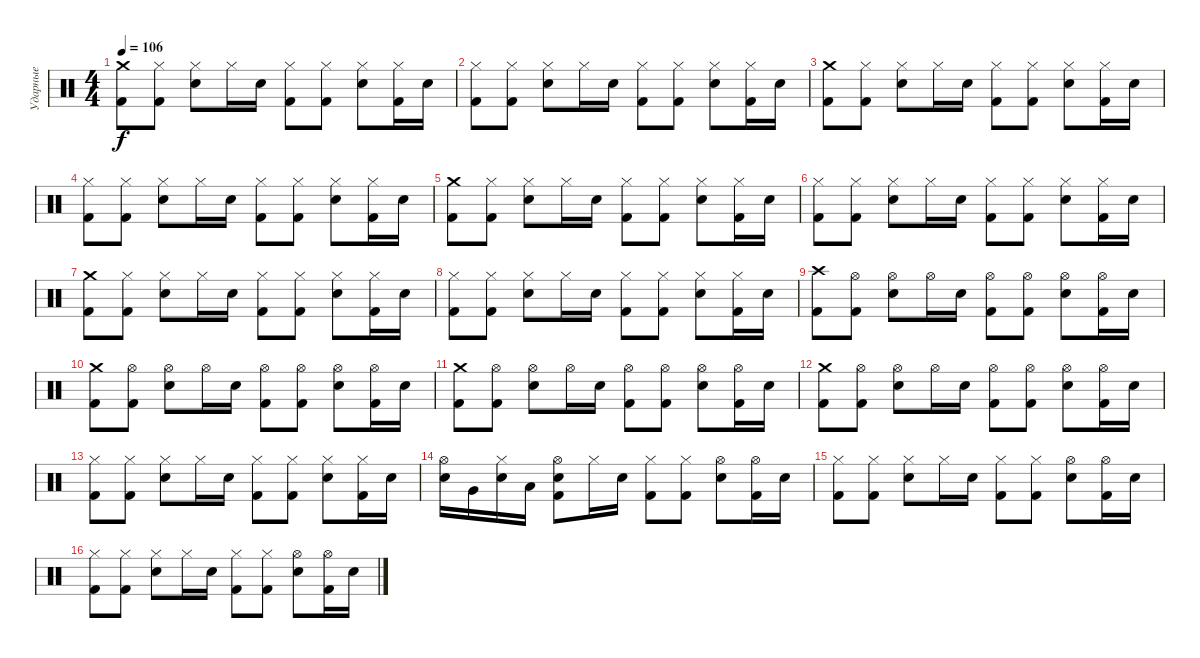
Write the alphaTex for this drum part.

\track ("Ударные" "Ударные") {instrument percussion}
\staff {score}
\articulation defaults
\ts (4 4)
\tempo 106
\clef neutral
\ks c
("Crash medium (hit)" "Kick (hit) 2").8{dy f} ("Hi-Hat (closed)" "Kick (hit) 2").8 ("Hi-Hat (closed)" "Electric Snare (hit)").8 "Hi-Hat (closed)".16 "Electric Snare (hit)".16 ("Hi-Hat (closed)" "Kick (hit) 2").8 ("Hi-Hat (closed)" "Kick (hit) 2").8 ("Hi-Hat (closed)" "Electric Snare (hit)").8 ("Hi-Hat (closed)" "Kick (hit) 2").16 "Electric Snare (hit)".16 |
("Hi-Hat (closed)" "Kick (hit) 2").8 ("Hi-Hat (closed)" "Kick (hit) 2").8 ("Hi-Hat (closed)" "Electric Snare (hit)").8 "Hi-Hat (closed)".16 "Electric Snare (hit)".16 ("Hi-Hat (closed)" "Kick (hit) 2").8 ("Hi-Hat (closed)" "Kick (hit) 2").8 ("Hi-Hat (closed)" "Electric Snare (hit)").8 ("Hi-Hat (closed)" "Kick (hit) 2").16 "Electric Snare (hit)".16 |
("Crash medium (hit)" "Kick (hit) 2").8 ("Hi-Hat (closed)" "Kick (hit) 2").8 ("Hi-Hat (closed)" "Electric Snare (hit)").8 "Hi-Hat (closed)".16 "Electric Snare (hit)".16 ("Hi-Hat (closed)" "Kick (hit) 2").8 ("Hi-Hat (closed)" "Kick (hit) 2").8 ("Hi-Hat (closed)" "Electric Snare (hit)").8 ("Hi-Hat (closed)" "Kick (hit) 2").16 "Electric Snare (hit)".16 |
("Hi-Hat (closed)" "Kick (hit) 2").8 ("Hi-Hat (closed)" "Kick (hit) 2").8 ("Hi-Hat (closed)" "Electric Snare (hit)").8 "Hi-Hat (closed)".16 "Electric Snare (hit)".16 ("Hi-Hat (closed)" "Kick (hit) 2").8 ("Hi-Hat (closed)" "Kick (hit) 2").8 ("Hi-Hat (closed)" "Electric Snare (hit)").8 ("Hi-Hat (closed)" "Kick (hit) 2").16 "Electric Snare (hit)".16 |
("Crash medium (hit)" "Kick (hit) 2").8 ("Hi-Hat (closed)" "Kick (hit) 2").8 ("Hi-Hat (closed)" "Electric Snare (hit)").8 "Hi-Hat (closed)".16 "Electric Snare (hit)".16 ("Hi-Hat (closed)" "Kick (hit) 2").8 ("Hi-Hat (closed)" "Kick (hit) 2").8 ("Hi-Hat (closed)" "Electric Snare (hit)").8 ("Hi-Hat (closed)" "Kick (hit) 2").16 "Electric Snare (hit)".16 |
("Hi-Hat (closed)" "Kick (hit) 2").8 ("Hi-Hat (closed)" "Kick (hit) 2").8 ("Hi-Hat (closed)" "Electric Snare (hit)").8 "Hi-Hat (closed)".16 "Electric Snare (hit)".16 ("Hi-Hat (closed)" "Kick (hit) 2").8 ("Hi-Hat (closed)" "Kick (hit) 2").8 ("Hi-Hat (closed)" "Electric Snare (hit)").8 ("Hi-Hat (closed)" "Kick (hit) 2").16 "Electric Snare (hit)".16 |
("Crash medium (hit)" "Kick (hit) 2").8 ("Hi-Hat (closed)" "Kick (hit) 2").8 ("Hi-Hat (closed)" "Electric Snare (hit)").8 "Hi-Hat (closed)".16 "Electric Snare (hit)".16 ("Hi-Hat (closed)" "Kick (hit) 2").8 ("Hi-Hat (closed)" "Kick (hit) 2").8 ("Hi-Hat (closed)" "Electric Snare (hit)").8 ("Hi-Hat (closed)" "Kick (hit) 2").16 "Electric Snare (hit)".16 |
("Hi-Hat (closed)" "Kick (hit) 2").8 ("Hi-Hat (closed)" "Kick (hit) 2").8 ("Hi-Hat (closed)" "Electric Snare (hit)").8 "Hi-Hat (closed)".16 "Electric Snare (hit)".16 ("Hi-Hat (closed)" "Kick (hit) 2").8 ("Hi-Hat (closed)" "Kick (hit) 2").8 ("Hi-Hat (closed)" "Electric Snare (hit)").8 ("Hi-Hat (closed)" "Kick (hit) 2").16 "Electric Snare (hit)".16 |
("Crash high (hit)" "Kick (hit) 2").8 ("Hi-Hat (open)" "Kick (hit) 2").8 ("Hi-Hat (open)" "Electric Snare (hit)").8 "Hi-Hat (open)".16 "Electric Snare (hit)".16 ("Hi-Hat (open)" "Kick (hit) 2").8 ("Hi-Hat (open)" "Kick (hit) 2").8 ("Hi-Hat (open)" "Electric Snare (hit)").8 ("Hi-Hat (open)" "Kick (hit) 2").16 "Electric Snare (hit)".16 |
("Crash medium (hit)" "Kick (hit) 2").8 ("Hi-Hat (open)" "Kick (hit) 2").8 ("Hi-Hat (open)" "Electric Snare (hit)").8 "Hi-Hat (open)".16 "Electric Snare (hit)".16 ("Hi-Hat (open)" "Kick (hit) 2").8 ("Hi-Hat (open)" "Kick (hit) 2").8 ("Hi-Hat (open)" "Electric Snare (hit)").8 ("Hi-Hat (open)" "Kick (hit) 2").16 "Electric Snare (hit)".16 |
("Crash medium (hit)" "Kick (hit) 2").8 ("Hi-Hat (open)" "Kick (hit) 2").8 ("Hi-Hat (open)" "Electric Snare (hit)").8 "Hi-Hat (open)".16 "Electric Snare (hit)".16 ("Hi-Hat (open)" "Kick (hit) 2").8 ("Hi-Hat (open)" "Kick (hit) 2").8 ("Hi-Hat (open)" "Electric Snare (hit)").8 ("Hi-Hat (open)" "Kick (hit) 2").16 "Electric Snare (hit)".16 |
("Crash medium (hit)" "Kick (hit) 2").8 ("Hi-Hat (open)" "Kick (hit) 2").8 ("Hi-Hat (open)" "Electric Snare (hit)").8 "Hi-Hat (open)".16 "Electric Snare (hit)".16 ("Hi-Hat (open)" "Kick (hit) 2").8 ("Hi-Hat (open)" "Kick (hit) 2").8 ("Hi-Hat (open)" "Electric Snare (hit)").8 ("Hi-Hat (open)" "Kick (hit) 2").16 "Electric Snare (hit)".16 |
("Hi-Hat (closed)" "Kick (hit) 2").8 ("Hi-Hat (closed)" "Kick (hit) 2").8 ("Hi-Hat (closed)" "Electric Snare (hit)").8 "Hi-Hat (closed)".16 "Electric Snare (hit)".16 ("Hi-Hat (closed)" "Kick (hit) 2").8 ("Hi-Hat (closed)" "Kick (hit) 2").8 ("Hi-Hat (closed)" "Electric Snare (hit)").8 ("Hi-Hat (closed)" "Kick (hit) 2").16 "Electric Snare (hit)".16 |
("Hi-Hat (open)" "Electric Snare (hit)").16 "Very Low Tom (hit)".16 ("Hi-Hat (closed)" "Electric Snare (hit)").16 "Low Tom (hit)".16 ("Hi-Hat (open)" "Electric Snare (hit)" "Kick (hit) 2").8 "Hi-Hat (closed)".16 "Electric Snare (hit)".16 ("Hi-Hat (closed)" "Kick (hit) 2").8 ("Hi-Hat (closed)" "Kick (hit) 2").8 ("Hi-Hat (open)" "Electric Snare (hit)").8 ("Hi-Hat (open)" "Kick (hit) 2").16 "Electric Snare (hit)".16 |
("Hi-Hat (closed)" "Kick (hit) 2").8 ("Hi-Hat (closed)" "Kick (hit) 2").8 ("Hi-Hat (closed)" "Electric Snare (hit)").8 "Hi-Hat (closed)".16 "Electric Snare (hit)".16 ("Hi-Hat (closed)" "Kick (hit) 2").8 ("Hi-Hat (closed)" "Kick (hit) 2").8 ("Hi-Hat (open)" "Electric Snare (hit)").8 ("Hi-Hat (open)" "Kick (hit) 2").16 "Electric Snare (hit)".16 |
("Hi-Hat (closed)" "Kick (hit) 2").8 ("Hi-Hat (closed)" "Kick (hit) 2").8 ("Hi-Hat (closed)" "Electric Snare (hit)").8 "Hi-Hat (closed)".16 "Electric Snare (hit)".16 ("Hi-Hat (closed)" "Kick (hit) 2").8 ("Hi-Hat (closed)" "Kick (hit) 2").8 ("Hi-Hat (open)" "Electric Snare (hit)").8 ("Hi-Hat (open)" "Kick (hit) 2").16 "Electric Snare (hit)".16
